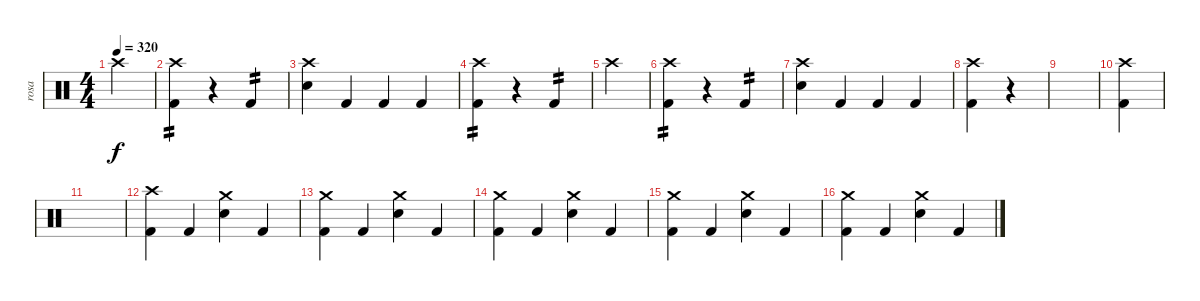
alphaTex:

\track ("rosa" "rosa") {instrument percussion}
\staff {score}
\articulation defaults
\ts (4 4)
\tempo 320
\clef neutral
\ks c "Crash high (hit)".4{dy f}
|
("Crash high (hit)" "Kick (hit) 2").4{tp 2} r.4 "Kick (hit) 2".4{tp 2} |
("Crash high (hit)" "Electric Snare (hit)").4 "Kick (hit) 2".4 "Kick (hit) 2".4 "Kick (hit) 2".4 |
("Crash high (hit)" "Kick (hit) 2").4{tp 2} r.4 "Kick (hit) 2".4{tp 2} |
"Crash high (hit)".4 |
("Crash high (hit)" "Kick (hit) 2").4{tp 2} r.4 "Kick (hit) 2".4{tp 2} |
("Crash high (hit)" "Electric Snare (hit)").4 "Kick (hit) 2".4 "Kick (hit) 2".4 "Kick (hit) 2".4 |
("Crash high (hit)" "Kick (hit) 2").4 r.4 |
|
("Crash high (hit)" "Kick (hit) 2").4 |
|
("Crash high (hit)" "Kick (hit) 2").4 "Kick (hit) 2".4 ("Crash medium (hit)" "Electric Snare (hit)").4 "Kick (hit) 2".4 |
("Crash medium (hit)" "Kick (hit) 2").4 "Kick (hit) 2".4 ("Crash medium (hit)" "Electric Snare (hit)").4 "Kick (hit) 2".4 |
("Crash medium (hit)" "Kick (hit) 2").4 "Kick (hit) 2".4 ("Crash medium (hit)" "Electric Snare (hit)").4 "Kick (hit) 2".4 |
("Crash medium (hit)" "Kick (hit) 2").4 "Kick (hit) 2".4 ("Crash medium (hit)" "Electric Snare (hit)").4 "Kick (hit) 2".4 |
("Crash medium (hit)" "Kick (hit) 2").4 "Kick (hit) 2".4 ("Crash medium (hit)" "Electric Snare (hit)").4 "Kick (hit) 2".4
